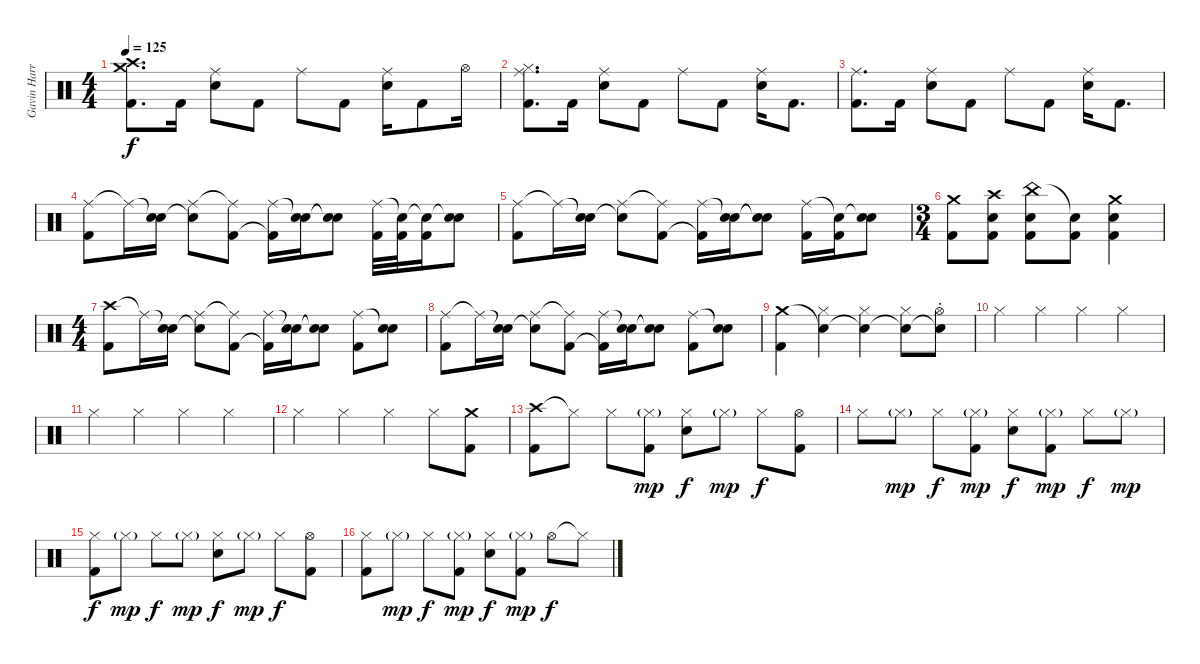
\track ("Gavin Harrison" "Gavin Harr") {instrument percussion}
\staff {score}
\articulation defaults
\ts (4 4)
\tempo 125
\clef neutral
\ks c
("Crash high (hit)" "Crash medium (hit)" "Kick (hit) 2").8{d dy f} "Kick (hit) 2".16 ("Ride (middle)" "Electric Snare (hit)").8 "Kick (hit) 2".8 "Ride (middle)".8 "Kick (hit) 2".8 ("Ride (middle)" "Electric Snare (hit)").16 "Kick (hit) 2".8 "Hi-Hat (open)".16 |
("Ride (middle)" "Hi-Hat (closed)" "Kick (hit) 2").8{d} "Kick (hit) 2".16 ("Ride (middle)" "Electric Snare (hit)").8 "Kick (hit) 2".8 "Ride (middle)".8 "Kick (hit) 2".8 ("Ride (middle)" "Electric Snare (hit)").16 "Kick (hit) 2".8{d} |
("Ride (middle)" "Kick (hit) 2").8{d} "Kick (hit) 2".16 ("Ride (middle)" "Electric Snare (hit)").8 "Kick (hit) 2".8 "Ride (middle)".8 "Kick (hit) 2".8 ("Ride (middle)" "Electric Snare (hit)").16 "Kick (hit) 2".8{d} |
("Ride (middle)" "Kick (hit) 2").8 "Ride (middle)"{t}.16 ("Snare (hit)"{t} "Electric Snare (hit)").16 ("Ride (middle)" "Electric Snare (hit)"{t}).8 ("Ride (middle)"{t} "Kick (hit) 2").8 ("Ride (middle)" "Kick (hit) 2"{t}).16 ("Snare (hit)"{t} "Electric Snare (hit)").16 ("Snare (hit)"{t} "Electric Snare (hit)"{t}).8 ("Ride (middle)" "Kick (hit) 2").32 ("Snare (hit)"{t} "Kick (hit) 2").32 ("Snare (hit)"{t} "Kick (hit) 2").16 ("Snare (hit)"{t} "Electric Snare (hit)").8 |
("Ride (middle)" "Kick (hit) 2").8 "Ride (middle)"{t}.16 ("Snare (hit)"{t} "Electric Snare (hit)").16 ("Ride (middle)" "Electric Snare (hit)"{t}).8 ("Ride (middle)"{t} "Kick (hit) 2").8 ("Ride (middle)" "Kick (hit) 2"{t}).16 ("Snare (hit)"{t} "Electric Snare (hit)").16 ("Snare (hit)"{t} "Electric Snare (hit)"{t}).8 ("Ride (middle)" "Kick (hit) 2").16 ("Snare (hit)"{t} "Kick (hit) 2").16 ("Snare (hit)"{t} "Electric Snare (hit)").8 |
\ts (3 4)
("Crash medium (hit)" "Kick (hit) 2").8 ("Crash high (hit)" "Electric Snare (hit)" "Kick (hit) 2").8 ("China (hit)" "Electric Snare (hit)" "Kick (hit) 2").8 ("Snare (hit)"{t} "Kick (hit) 2").8 ("Crash medium (hit)" "Electric Snare (hit)" "Kick (hit) 2").4 |
\ts (4 4)
("Crash high (hit)" "Kick (hit) 2").8 "Ride (middle)"{t}.16 ("Snare (hit)"{t} "Electric Snare (hit)").16 ("Ride (middle)" "Electric Snare (hit)"{t}).8 ("Ride (middle)"{t} "Kick (hit) 2").8 ("Ride (middle)" "Kick (hit) 2"{t}).16 ("Snare (hit)"{t} "Electric Snare (hit)").16 ("Snare (hit)"{t} "Electric Snare (hit)"{t}).8 ("Ride (middle)" "Kick (hit) 2").8 ("Snare (hit)"{t} "Electric Snare (hit)").8 |
("Ride (middle)" "Kick (hit) 2").8 "Ride (middle)"{t}.16 ("Snare (hit)"{t} "Electric Snare (hit)").16 ("Ride (middle)" "Electric Snare (hit)"{t}).8 ("Ride (middle)"{t} "Kick (hit) 2").8 ("Ride (middle)" "Kick (hit) 2"{t}).16 ("Snare (hit)"{t} "Electric Snare (hit)").16 ("Snare (hit)"{t} "Electric Snare (hit)"{t}).8 ("Ride (middle)" "Kick (hit) 2").8 ("Snare (hit)"{t} "Electric Snare (hit)").8 |
("Crash medium (hit)" "Kick (hit) 2").4 ("Snare (hit)"{t} "Hi-Hat (closed)").4 ("Snare (hit)"{t} "Hi-Hat (closed)").4 ("Snare (hit)"{t} "Hi-Hat (closed)").8 ("Snare (hit)"{t} "Hi-Hat (open)"{st}).8 |
"Hi-Hat (closed)".4 "Hi-Hat (closed)".4 "Hi-Hat (closed)".4 "Hi-Hat (closed)".4 |
"Hi-Hat (closed)".4 "Hi-Hat (closed)".4 "Hi-Hat (closed)".4 "Hi-Hat (closed)".4 |
"Hi-Hat (closed)".4 "Hi-Hat (closed)".4 "Hi-Hat (closed)".4 "Hi-Hat (closed)".8 ("Crash medium (hit)" "Kick (hit) 2").8 |
("Crash high (hit)" "Kick (hit) 2").8 "Hi-Hat (closed)"{t}.8 "Hi-Hat (closed)".8 ("Hi-Hat (closed)"{g} "Kick (hit) 2").8{dy mp} ("Hi-Hat (closed)" "Electric Snare (hit)").8{dy f} "Hi-Hat (closed)"{g}.8{dy mp} "Hi-Hat (closed)".8{dy f} ("Hi-Hat (open)" "Kick (hit) 2").8 |
"Hi-Hat (closed)".8 "Hi-Hat (closed)"{g}.8{dy mp} "Hi-Hat (closed)".8{dy f} ("Hi-Hat (closed)"{g} "Kick (hit) 2").8{dy mp} ("Hi-Hat (closed)" "Electric Snare (hit)").8{dy f} ("Hi-Hat (closed)"{g} "Kick (hit) 2").8{dy mp} "Hi-Hat (closed)".8{dy f} "Hi-Hat (closed)"{g}.8{dy mp} |
("Hi-Hat (closed)" "Kick (hit) 2").8{dy f} "Hi-Hat (closed)"{g}.8{dy mp} "Hi-Hat (closed)".8{dy f} "Hi-Hat (closed)"{g}.8{dy mp} ("Hi-Hat (closed)" "Electric Snare (hit)").8{dy f} "Hi-Hat (closed)"{g}.8{dy mp} "Hi-Hat (closed)".8{dy f} ("Hi-Hat (open)" "Kick (hit) 2").8 |
("Hi-Hat (closed)" "Kick (hit) 2").8 "Hi-Hat (closed)"{g}.8{dy mp} "Hi-Hat (closed)".8{dy f} ("Hi-Hat (closed)"{g} "Kick (hit) 2").8{dy mp} ("Hi-Hat (closed)" "Electric Snare (hit)").8{dy f} ("Hi-Hat (closed)"{g} "Kick (hit) 2").8{dy mp} "Hi-Hat (open)".8{dy f} "Hi-Hat (closed)"{t}.8
